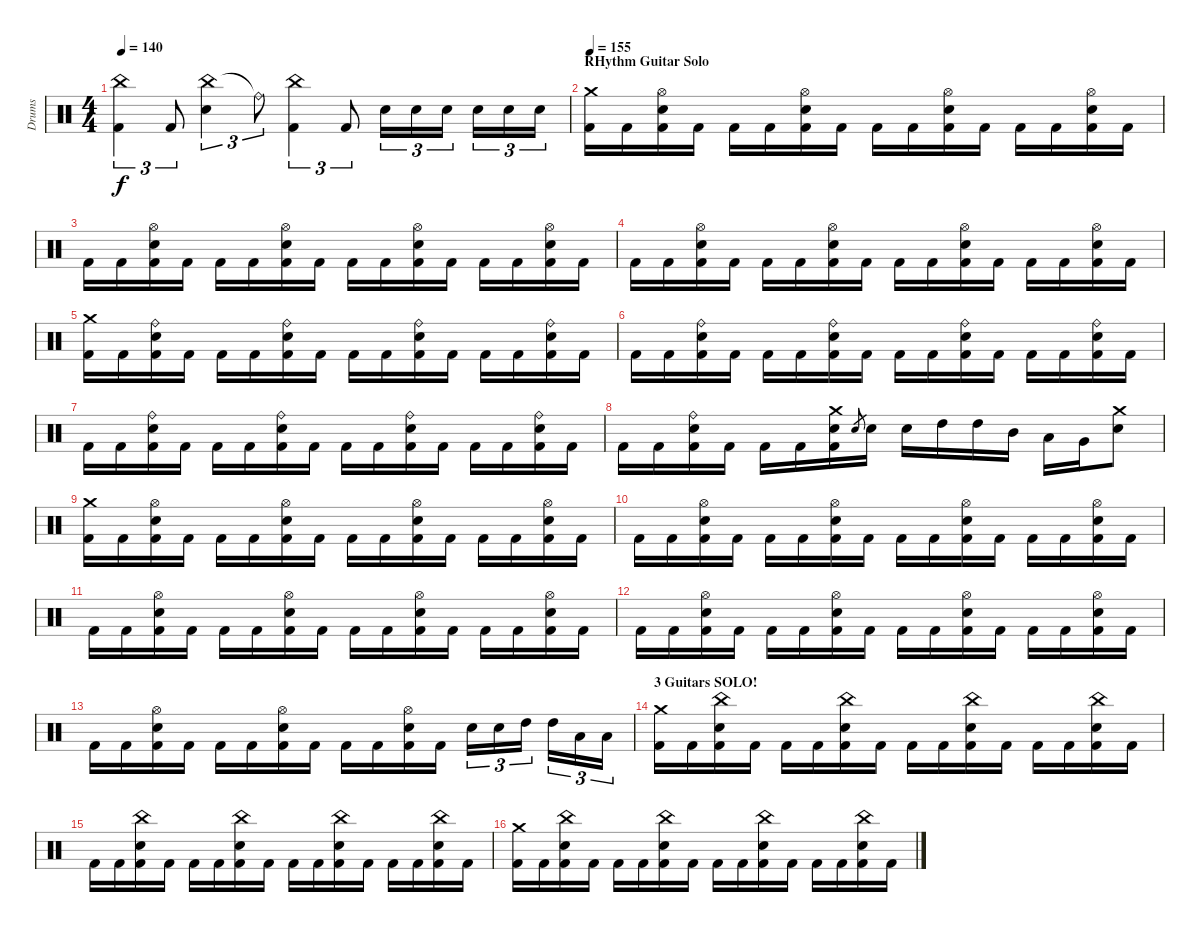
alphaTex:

\track ("Drums" "Drums") {instrument percussion}
\staff {score}
\articulation defaults
\ts (4 4)
\tempo 140
\clef neutral
\ks c
("China (hit)" "Kick (hit) 2").4{tu (3 2) dy f} "Kick (hit) 2".8{tu (3 2)} ("China (hit)" "Electric Snare (hit)").4{tu (3 2)} "Ride (bell)"{t}.8{tu (3 2)} ("China (hit)" "Kick (hit) 2").4{tu (3 2)} "Kick (hit) 2".8{tu (3 2)} "Electric Snare (hit)".16{tu (3 2)} "Electric Snare (hit)".16{tu (3 2)} "Electric Snare (hit)".16{tu (3 2)} "Electric Snare (hit)".16{tu (3 2)} "Electric Snare (hit)".16{tu (3 2)} "Electric Snare (hit)".16{tu (3 2)} |
\section ("" "RHythm Guitar Solo")
\tempo 155
("Crash medium (hit)" "Kick (hit) 2").16 "Kick (hit) 2".16 ("Hi-Hat (open)" "Electric Snare (hit)" "Kick (hit) 2").16 "Kick (hit) 2".16 "Kick (hit) 2".16 "Kick (hit) 2".16 ("Hi-Hat (open)" "Electric Snare (hit)" "Kick (hit) 2").16 "Kick (hit) 2".16 "Kick (hit) 2".16 "Kick (hit) 2".16 ("Hi-Hat (open)" "Electric Snare (hit)" "Kick (hit) 2").16 "Kick (hit) 2".16 "Kick (hit) 2".16 "Kick (hit) 2".16 ("Hi-Hat (open)" "Electric Snare (hit)" "Kick (hit) 2").16 "Kick (hit) 2".16 |
"Kick (hit) 2".16 "Kick (hit) 2".16 ("Hi-Hat (open)" "Electric Snare (hit)" "Kick (hit) 2").16 "Kick (hit) 2".16 "Kick (hit) 2".16 "Kick (hit) 2".16 ("Hi-Hat (open)" "Electric Snare (hit)" "Kick (hit) 2").16 "Kick (hit) 2".16 "Kick (hit) 2".16 "Kick (hit) 2".16 ("Hi-Hat (open)" "Electric Snare (hit)" "Kick (hit) 2").16 "Kick (hit) 2".16 "Kick (hit) 2".16 "Kick (hit) 2".16 ("Hi-Hat (open)" "Electric Snare (hit)" "Kick (hit) 2").16 "Kick (hit) 2".16 |
"Kick (hit) 2".16 "Kick (hit) 2".16 ("Hi-Hat (open)" "Electric Snare (hit)" "Kick (hit) 2").16 "Kick (hit) 2".16 "Kick (hit) 2".16 "Kick (hit) 2".16 ("Hi-Hat (open)" "Electric Snare (hit)" "Kick (hit) 2").16 "Kick (hit) 2".16 "Kick (hit) 2".16 "Kick (hit) 2".16 ("Hi-Hat (open)" "Electric Snare (hit)" "Kick (hit) 2").16 "Kick (hit) 2".16 "Kick (hit) 2".16 "Kick (hit) 2".16 ("Hi-Hat (open)" "Electric Snare (hit)" "Kick (hit) 2").16 "Kick (hit) 2".16 |
("Crash medium (hit)" "Kick (hit) 2").16 "Kick (hit) 2".16 ("Ride (bell)" "Electric Snare (hit)" "Kick (hit) 2").16 "Kick (hit) 2".16 "Kick (hit) 2".16 "Kick (hit) 2".16 ("Ride (bell)" "Electric Snare (hit)" "Kick (hit) 2").16 "Kick (hit) 2".16 "Kick (hit) 2".16 "Kick (hit) 2".16 ("Ride (bell)" "Electric Snare (hit)" "Kick (hit) 2").16 "Kick (hit) 2".16 "Kick (hit) 2".16 "Kick (hit) 2".16 ("Ride (bell)" "Electric Snare (hit)" "Kick (hit) 2").16 "Kick (hit) 2".16 |
"Kick (hit) 2".16 "Kick (hit) 2".16 ("Ride (bell)" "Electric Snare (hit)" "Kick (hit) 2").16 "Kick (hit) 2".16 "Kick (hit) 2".16 "Kick (hit) 2".16 ("Ride (bell)" "Electric Snare (hit)" "Kick (hit) 2").16 "Kick (hit) 2".16 "Kick (hit) 2".16 "Kick (hit) 2".16 ("Ride (bell)" "Electric Snare (hit)" "Kick (hit) 2").16 "Kick (hit) 2".16 "Kick (hit) 2".16 "Kick (hit) 2".16 ("Ride (bell)" "Electric Snare (hit)" "Kick (hit) 2").16 "Kick (hit) 2".16 |
"Kick (hit) 2".16 "Kick (hit) 2".16 ("Ride (bell)" "Electric Snare (hit)" "Kick (hit) 2").16 "Kick (hit) 2".16 "Kick (hit) 2".16 "Kick (hit) 2".16 ("Ride (bell)" "Electric Snare (hit)" "Kick (hit) 2").16 "Kick (hit) 2".16 "Kick (hit) 2".16 "Kick (hit) 2".16 ("Ride (bell)" "Electric Snare (hit)" "Kick (hit) 2").16 "Kick (hit) 2".16 "Kick (hit) 2".16 "Kick (hit) 2".16 ("Ride (bell)" "Electric Snare (hit)" "Kick (hit) 2").16 "Kick (hit) 2".16 |
"Kick (hit) 2".16 "Kick (hit) 2".16 ("Ride (bell)" "Electric Snare (hit)" "Kick (hit) 2").16 "Kick (hit) 2".16 "Kick (hit) 2".16 "Kick (hit) 2".16 ("Crash medium (hit)" "Electric Snare (hit)" "Kick (hit) 2").16 "Electric Snare (hit)".8{gr} "Electric Snare (hit)".16 "Electric Snare (hit)".16 "High Tom (hit)".16 "High Tom (hit)".16 "Mid Tom (hit)".16 "Low Tom (hit)".16 "Very Low Tom (hit)".16 ("Crash medium (hit)" "Electric Snare (hit)").8 |
("Crash medium (hit)" "Kick (hit) 2").16 "Kick (hit) 2".16 ("Hi-Hat (open)" "Electric Snare (hit)" "Kick (hit) 2").16 "Kick (hit) 2".16 "Kick (hit) 2".16 "Kick (hit) 2".16 ("Hi-Hat (open)" "Electric Snare (hit)" "Kick (hit) 2").16 "Kick (hit) 2".16 "Kick (hit) 2".16 "Kick (hit) 2".16 ("Hi-Hat (open)" "Electric Snare (hit)" "Kick (hit) 2").16 "Kick (hit) 2".16 "Kick (hit) 2".16 "Kick (hit) 2".16 ("Hi-Hat (open)" "Electric Snare (hit)" "Kick (hit) 2").16 "Kick (hit) 2".16 |
"Kick (hit) 2".16 "Kick (hit) 2".16 ("Hi-Hat (open)" "Electric Snare (hit)" "Kick (hit) 2").16 "Kick (hit) 2".16 "Kick (hit) 2".16 "Kick (hit) 2".16 ("Hi-Hat (open)" "Electric Snare (hit)" "Kick (hit) 2").16 "Kick (hit) 2".16 "Kick (hit) 2".16 "Kick (hit) 2".16 ("Hi-Hat (open)" "Electric Snare (hit)" "Kick (hit) 2").16 "Kick (hit) 2".16 "Kick (hit) 2".16 "Kick (hit) 2".16 ("Hi-Hat (open)" "Electric Snare (hit)" "Kick (hit) 2").16 "Kick (hit) 2".16 |
"Kick (hit) 2".16 "Kick (hit) 2".16 ("Hi-Hat (open)" "Electric Snare (hit)" "Kick (hit) 2").16 "Kick (hit) 2".16 "Kick (hit) 2".16 "Kick (hit) 2".16 ("Hi-Hat (open)" "Electric Snare (hit)" "Kick (hit) 2").16 "Kick (hit) 2".16 "Kick (hit) 2".16 "Kick (hit) 2".16 ("Hi-Hat (open)" "Electric Snare (hit)" "Kick (hit) 2").16 "Kick (hit) 2".16 "Kick (hit) 2".16 "Kick (hit) 2".16 ("Hi-Hat (open)" "Electric Snare (hit)" "Kick (hit) 2").16 "Kick (hit) 2".16 |
"Kick (hit) 2".16 "Kick (hit) 2".16 ("Hi-Hat (open)" "Electric Snare (hit)" "Kick (hit) 2").16 "Kick (hit) 2".16 "Kick (hit) 2".16 "Kick (hit) 2".16 ("Hi-Hat (open)" "Electric Snare (hit)" "Kick (hit) 2").16 "Kick (hit) 2".16 "Kick (hit) 2".16 "Kick (hit) 2".16 ("Hi-Hat (open)" "Electric Snare (hit)" "Kick (hit) 2").16 "Kick (hit) 2".16 "Kick (hit) 2".16 "Kick (hit) 2".16 ("Hi-Hat (open)" "Electric Snare (hit)" "Kick (hit) 2").16 "Kick (hit) 2".16 |
"Kick (hit) 2".16 "Kick (hit) 2".16 ("Hi-Hat (open)" "Electric Snare (hit)" "Kick (hit) 2").16 "Kick (hit) 2".16 "Kick (hit) 2".16 "Kick (hit) 2".16 ("Hi-Hat (open)" "Electric Snare (hit)" "Kick (hit) 2").16 "Kick (hit) 2".16 "Kick (hit) 2".16 "Kick (hit) 2".16 ("Hi-Hat (open)" "Electric Snare (hit)" "Kick (hit) 2").16 "Kick (hit) 2".16 "Electric Snare (hit)".16{tu (3 2)} "Electric Snare (hit)".16{tu (3 2)} "High Tom (hit)".16{tu (3 2)} "High Tom (hit)".16{tu (3 2)} "Low Tom (hit)".16{tu (3 2)} "Low Tom (hit)".16{tu (3 2)} |
\section ("" "3 Guitars SOLO!")
("Crash medium (hit)" "Kick (hit) 2").16 "Kick (hit) 2".16 ("China (hit)" "Electric Snare (hit)" "Kick (hit) 2").16 "Kick (hit) 2".16 "Kick (hit) 2".16 "Kick (hit) 2".16 ("China (hit)" "Electric Snare (hit)" "Kick (hit) 2").16 "Kick (hit) 2".16 "Kick (hit) 2".16 "Kick (hit) 2".16 ("China (hit)" "Electric Snare (hit)" "Kick (hit) 2").16 "Kick (hit) 2".16 "Kick (hit) 2".16 "Kick (hit) 2".16 ("China (hit)" "Electric Snare (hit)" "Kick (hit) 2").16 "Kick (hit) 2".16 |
"Kick (hit) 2".16 "Kick (hit) 2".16 ("China (hit)" "Electric Snare (hit)" "Kick (hit) 2").16 "Kick (hit) 2".16 "Kick (hit) 2".16 "Kick (hit) 2".16 ("China (hit)" "Electric Snare (hit)" "Kick (hit) 2").16 "Kick (hit) 2".16 "Kick (hit) 2".16 "Kick (hit) 2".16 ("China (hit)" "Electric Snare (hit)" "Kick (hit) 2").16 "Kick (hit) 2".16 "Kick (hit) 2".16 "Kick (hit) 2".16 ("China (hit)" "Electric Snare (hit)" "Kick (hit) 2").16 "Kick (hit) 2".16 |
("Crash medium (hit)" "Kick (hit) 2").16 "Kick (hit) 2".16 ("China (hit)" "Electric Snare (hit)" "Kick (hit) 2").16 "Kick (hit) 2".16 "Kick (hit) 2".16 "Kick (hit) 2".16 ("China (hit)" "Electric Snare (hit)" "Kick (hit) 2").16 "Kick (hit) 2".16 "Kick (hit) 2".16 "Kick (hit) 2".16 ("China (hit)" "Electric Snare (hit)" "Kick (hit) 2").16 "Kick (hit) 2".16 "Kick (hit) 2".16 "Kick (hit) 2".16 ("China (hit)" "Electric Snare (hit)" "Kick (hit) 2").16 "Kick (hit) 2".16
